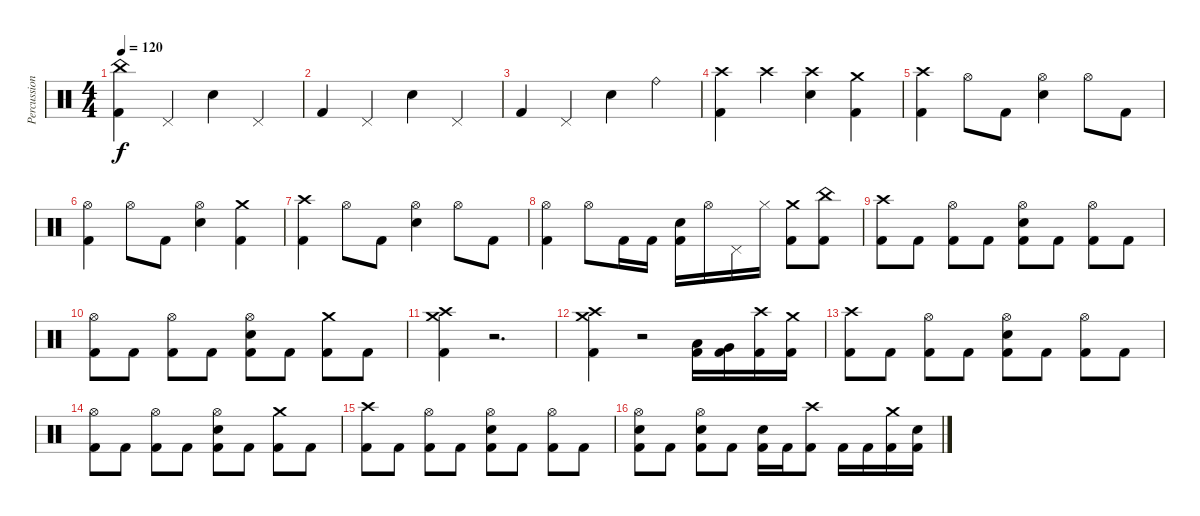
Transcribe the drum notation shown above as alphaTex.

\track ("Percussion" "Percussion") {instrument percussion}
\staff {score}
\articulation defaults
\ts (4 4)
\tempo 120
\clef neutral
\ks c
("China (hit)" "Kick (hit) 2").4{dy f} "Pedal Hi-Hat (hit)".4 "Electric Snare (hit)".4 "Pedal Hi-Hat (hit)".4 |
"Kick (hit) 2".4 "Pedal Hi-Hat (hit)".4 "Electric Snare (hit)".4 "Pedal Hi-Hat (hit)".4 |
"Kick (hit) 2".4 "Pedal Hi-Hat (hit)".4 "Electric Snare (hit)".4 "Ride (bell)".4 |
("Crash high (hit)" "Kick (hit) 2").4 "Crash high (hit)".4 ("Crash high (hit)" "Electric Snare (hit)").4 ("Crash medium (hit)" "Kick (hit) 2").4 |
("Crash high (hit)" "Kick (hit) 2").4 "Hi-Hat (open)".8 "Kick (hit) 2".8 ("Hi-Hat (open)" "Electric Snare (hit)").4 "Hi-Hat (open)".8 "Kick (hit) 2".8 |
("Hi-Hat (open)" "Kick (hit) 2").4 "Hi-Hat (open)".8 "Kick (hit) 2".8 ("Hi-Hat (open)" "Electric Snare (hit)").4 ("Crash medium (hit)" "Kick (hit) 2").4 |
("Crash high (hit)" "Kick (hit) 2").4 "Hi-Hat (open)".8 "Kick (hit) 2".8 ("Hi-Hat (open)" "Electric Snare (hit)").4 "Hi-Hat (open)".8 "Kick (hit) 2".8 |
("Hi-Hat (open)" "Kick (hit) 2").4 "Hi-Hat (open)".8 "Kick (hit) 2".16 "Kick (hit) 2".16 ("Electric Snare (hit)" "Kick (hit) 2").16 "Hi-Hat (open)".16 "Pedal Hi-Hat (hit)".16 "Hi-Hat (closed)".16 ("Crash medium (hit)" "Kick (hit) 2").8 ("China (hit)" "Kick (hit) 2").8 |
("Crash high (hit)" "Kick (hit) 2").8 "Kick (hit) 2".8 ("Hi-Hat (open)" "Kick (hit) 2").8 "Kick (hit) 2".8 ("Hi-Hat (open)" "Electric Snare (hit)" "Kick (hit) 2").8 "Kick (hit) 2".8 ("Hi-Hat (open)" "Kick (hit) 2").8 "Kick (hit) 2".8 |
("Hi-Hat (open)" "Kick (hit) 2").8 "Kick (hit) 2".8 ("Hi-Hat (open)" "Kick (hit) 2").8 "Kick (hit) 2".8 ("Hi-Hat (open)" "Electric Snare (hit)" "Kick (hit) 2").8 "Kick (hit) 2".8 ("Crash medium (hit)" "Kick (hit) 2").8 "Kick (hit) 2".8 |
("Crash medium (hit)" "Crash high (hit)" "Kick (hit) 2").4 r.2{d} |
("Crash medium (hit)" "Crash high (hit)" "Kick (hit) 2").4 r.2 ("Low Tom (hit)" "Kick (hit) 2").16 ("Very Low Tom (hit)" "Kick (hit) 2").16 ("Crash high (hit)" "Kick (hit) 2").16 ("Crash medium (hit)" "Kick (hit) 2").16 |
("Crash high (hit)" "Kick (hit) 2").8 "Kick (hit) 2".8 ("Hi-Hat (open)" "Kick (hit) 2").8 "Kick (hit) 2".8 ("Hi-Hat (open)" "Electric Snare (hit)" "Kick (hit) 2").8 "Kick (hit) 2".8 ("Hi-Hat (open)" "Kick (hit) 2").8 "Kick (hit) 2".8 |
("Hi-Hat (open)" "Kick (hit) 2").8 "Kick (hit) 2".8 ("Hi-Hat (open)" "Kick (hit) 2").8 "Kick (hit) 2".8 ("Hi-Hat (open)" "Electric Snare (hit)" "Kick (hit) 2").8 "Kick (hit) 2".8 ("Crash medium (hit)" "Kick (hit) 2").8 "Kick (hit) 2".8 |
("Crash high (hit)" "Kick (hit) 2").8 "Kick (hit) 2".8 ("Hi-Hat (open)" "Kick (hit) 2").8 "Kick (hit) 2".8 ("Hi-Hat (open)" "Electric Snare (hit)" "Kick (hit) 2").8 "Kick (hit) 2".8 ("Hi-Hat (open)" "Kick (hit) 2").8 "Kick (hit) 2".8 |
("Hi-Hat (open)" "Electric Snare (hit)" "Kick (hit) 2").8 "Kick (hit) 2".8 ("Hi-Hat (open)" "Electric Snare (hit)" "Kick (hit) 2").8 "Kick (hit) 2".8 ("Electric Snare (hit)" "Kick (hit) 2").16 "Kick (hit) 2".16 ("Crash high (hit)" "Kick (hit) 2").8 "Kick (hit) 2".16 "Kick (hit) 2".16 ("Crash medium (hit)" "Kick (hit) 2").16 ("Electric Snare (hit)" "Kick (hit) 2").16
